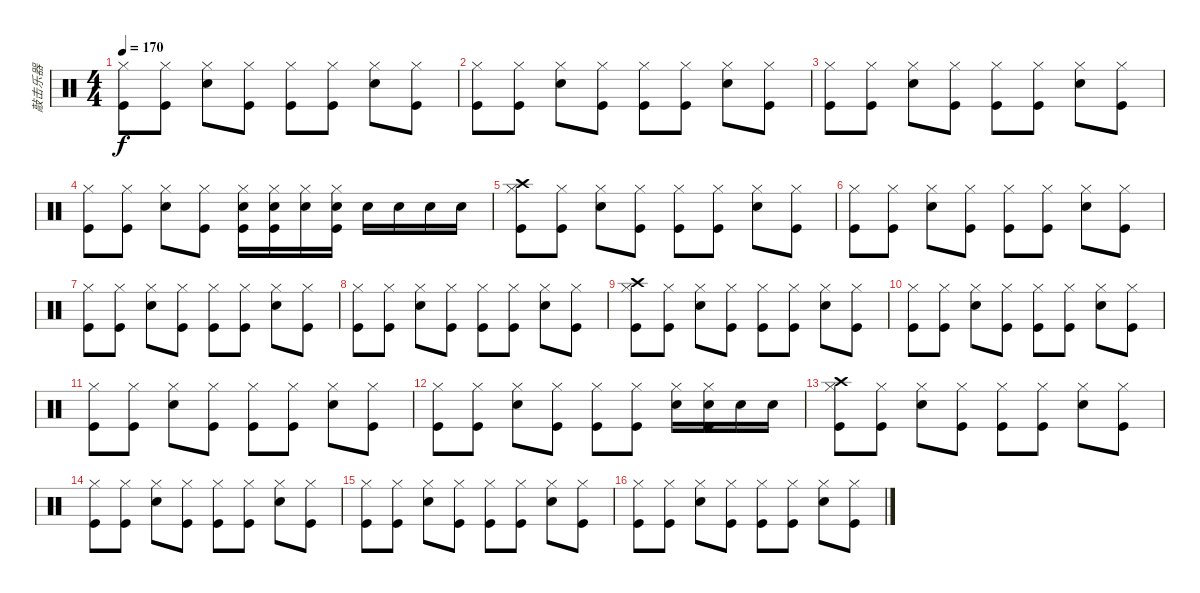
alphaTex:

\track ("敲击乐器" "敲击乐器") {instrument percussion}
\staff {score}
\articulation defaults
\ts (4 4)
\tempo 170
\clef neutral
\ks c
("Hi-Hat (closed)" "Kick (hit)").8{dy f} ("Hi-Hat (closed)" "Kick (hit)").8 ("Hi-Hat (closed)" "Snare (hit) 2").8 ("Hi-Hat (closed)" "Kick (hit)").8 ("Hi-Hat (closed)" "Kick (hit)").8 ("Hi-Hat (closed)" "Kick (hit)").8 ("Hi-Hat (closed)" "Snare (hit) 2").8 ("Hi-Hat (closed)" "Kick (hit)").8 |
("Hi-Hat (closed)" "Kick (hit)").8 ("Hi-Hat (closed)" "Kick (hit)").8 ("Hi-Hat (closed)" "Snare (hit) 2").8 ("Hi-Hat (closed)" "Kick (hit)").8 ("Hi-Hat (closed)" "Kick (hit)").8 ("Hi-Hat (closed)" "Kick (hit)").8 ("Hi-Hat (closed)" "Snare (hit) 2").8 ("Hi-Hat (closed)" "Kick (hit)").8 |
("Hi-Hat (closed)" "Kick (hit)").8 ("Hi-Hat (closed)" "Kick (hit)").8 ("Hi-Hat (closed)" "Snare (hit) 2").8 ("Hi-Hat (closed)" "Kick (hit)").8 ("Hi-Hat (closed)" "Kick (hit)").8 ("Hi-Hat (closed)" "Kick (hit)").8 ("Hi-Hat (closed)" "Snare (hit) 2").8 ("Hi-Hat (closed)" "Kick (hit)").8 |
("Hi-Hat (closed)" "Kick (hit)").8 ("Hi-Hat (closed)" "Kick (hit)").8 ("Hi-Hat (closed)" "Snare (hit) 2").8 ("Hi-Hat (closed)" "Kick (hit)").8 ("Hi-Hat (closed)" "Snare (hit) 2" "Kick (hit)").16 ("Hi-Hat (closed)" "Snare (hit) 2" "Kick (hit)").16 ("Hi-Hat (closed)" "Snare (hit) 2").16 ("Hi-Hat (closed)" "Snare (hit) 2" "Kick (hit)").16 "Snare (hit) 2".16 "Snare (hit) 2".16 "Snare (hit) 2".16 "Snare (hit) 2".16 |
("Crash high (hit)" "Hi-Hat (closed)" "Kick (hit)").8 ("Hi-Hat (closed)" "Kick (hit)").8 ("Hi-Hat (closed)" "Snare (hit) 2").8 ("Hi-Hat (closed)" "Kick (hit)").8 ("Hi-Hat (closed)" "Kick (hit)").8 ("Hi-Hat (closed)" "Kick (hit)").8 ("Hi-Hat (closed)" "Snare (hit) 2").8 ("Hi-Hat (closed)" "Kick (hit)").8 |
("Hi-Hat (closed)" "Kick (hit)").8 ("Hi-Hat (closed)" "Kick (hit)").8 ("Hi-Hat (closed)" "Snare (hit) 2").8 ("Hi-Hat (closed)" "Kick (hit)").8 ("Hi-Hat (closed)" "Kick (hit)").8 ("Hi-Hat (closed)" "Kick (hit)").8 ("Hi-Hat (closed)" "Snare (hit) 2").8 ("Hi-Hat (closed)" "Kick (hit)").8 |
("Hi-Hat (closed)" "Kick (hit)").8 ("Hi-Hat (closed)" "Kick (hit)").8 ("Hi-Hat (closed)" "Snare (hit) 2").8 ("Hi-Hat (closed)" "Kick (hit)").8 ("Hi-Hat (closed)" "Kick (hit)").8 ("Hi-Hat (closed)" "Kick (hit)").8 ("Hi-Hat (closed)" "Snare (hit) 2").8 ("Hi-Hat (closed)" "Kick (hit)").8 |
("Hi-Hat (closed)" "Kick (hit)").8 ("Hi-Hat (closed)" "Kick (hit)").8 ("Hi-Hat (closed)" "Snare (hit) 2").8 ("Hi-Hat (closed)" "Kick (hit)").8 ("Hi-Hat (closed)" "Kick (hit)").8 ("Hi-Hat (closed)" "Kick (hit)").8 ("Hi-Hat (closed)" "Snare (hit) 2").8 ("Hi-Hat (closed)" "Kick (hit)").8 |
("Crash high (hit)" "Hi-Hat (closed)" "Kick (hit)").8 ("Hi-Hat (closed)" "Kick (hit)").8 ("Hi-Hat (closed)" "Snare (hit) 2").8 ("Hi-Hat (closed)" "Kick (hit)").8 ("Hi-Hat (closed)" "Kick (hit)").8 ("Hi-Hat (closed)" "Kick (hit)").8 ("Hi-Hat (closed)" "Snare (hit) 2").8 ("Hi-Hat (closed)" "Kick (hit)").8 |
("Hi-Hat (closed)" "Kick (hit)").8 ("Hi-Hat (closed)" "Kick (hit)").8 ("Hi-Hat (closed)" "Snare (hit) 2").8 ("Hi-Hat (closed)" "Kick (hit)").8 ("Hi-Hat (closed)" "Kick (hit)").8 ("Hi-Hat (closed)" "Kick (hit)").8 ("Hi-Hat (closed)" "Snare (hit) 2").8 ("Hi-Hat (closed)" "Kick (hit)").8 |
("Hi-Hat (closed)" "Kick (hit)").8 ("Hi-Hat (closed)" "Kick (hit)").8 ("Hi-Hat (closed)" "Snare (hit) 2").8 ("Hi-Hat (closed)" "Kick (hit)").8 ("Hi-Hat (closed)" "Kick (hit)").8 ("Hi-Hat (closed)" "Kick (hit)").8 ("Hi-Hat (closed)" "Snare (hit) 2").8 ("Hi-Hat (closed)" "Kick (hit)").8 |
("Hi-Hat (closed)" "Kick (hit)").8 ("Hi-Hat (closed)" "Kick (hit)").8 ("Hi-Hat (closed)" "Snare (hit) 2").8 ("Hi-Hat (closed)" "Kick (hit)").8 ("Hi-Hat (closed)" "Kick (hit)").8 ("Hi-Hat (closed)" "Kick (hit)").8 ("Hi-Hat (closed)" "Snare (hit) 2").16 ("Hi-Hat (closed)" "Snare (hit) 2" "Kick (hit)").16 "Snare (hit) 2".16 "Snare (hit) 2".16 |
("Crash high (hit)" "Hi-Hat (closed)" "Kick (hit)").8 ("Hi-Hat (closed)" "Kick (hit)").8 ("Hi-Hat (closed)" "Snare (hit) 2").8 ("Hi-Hat (closed)" "Kick (hit)").8 ("Hi-Hat (closed)" "Kick (hit)").8 ("Hi-Hat (closed)" "Kick (hit)").8 ("Hi-Hat (closed)" "Snare (hit) 2").8 ("Hi-Hat (closed)" "Kick (hit)").8 |
("Hi-Hat (closed)" "Kick (hit)").8 ("Hi-Hat (closed)" "Kick (hit)").8 ("Hi-Hat (closed)" "Snare (hit) 2").8 ("Hi-Hat (closed)" "Kick (hit)").8 ("Hi-Hat (closed)" "Kick (hit)").8 ("Hi-Hat (closed)" "Kick (hit)").8 ("Hi-Hat (closed)" "Snare (hit) 2").8 ("Hi-Hat (closed)" "Kick (hit)").8 |
("Hi-Hat (closed)" "Kick (hit)").8 ("Hi-Hat (closed)" "Kick (hit)").8 ("Hi-Hat (closed)" "Snare (hit) 2").8 ("Hi-Hat (closed)" "Kick (hit)").8 ("Hi-Hat (closed)" "Kick (hit)").8 ("Hi-Hat (closed)" "Kick (hit)").8 ("Hi-Hat (closed)" "Snare (hit) 2").8 ("Hi-Hat (closed)" "Kick (hit)").8 |
("Hi-Hat (closed)" "Kick (hit)").8 ("Hi-Hat (closed)" "Kick (hit)").8 ("Hi-Hat (closed)" "Snare (hit) 2").8 ("Hi-Hat (closed)" "Kick (hit)").8 ("Hi-Hat (closed)" "Kick (hit)").8 ("Hi-Hat (closed)" "Kick (hit)").8 ("Hi-Hat (closed)" "Snare (hit) 2").8 ("Hi-Hat (closed)" "Kick (hit)").8
